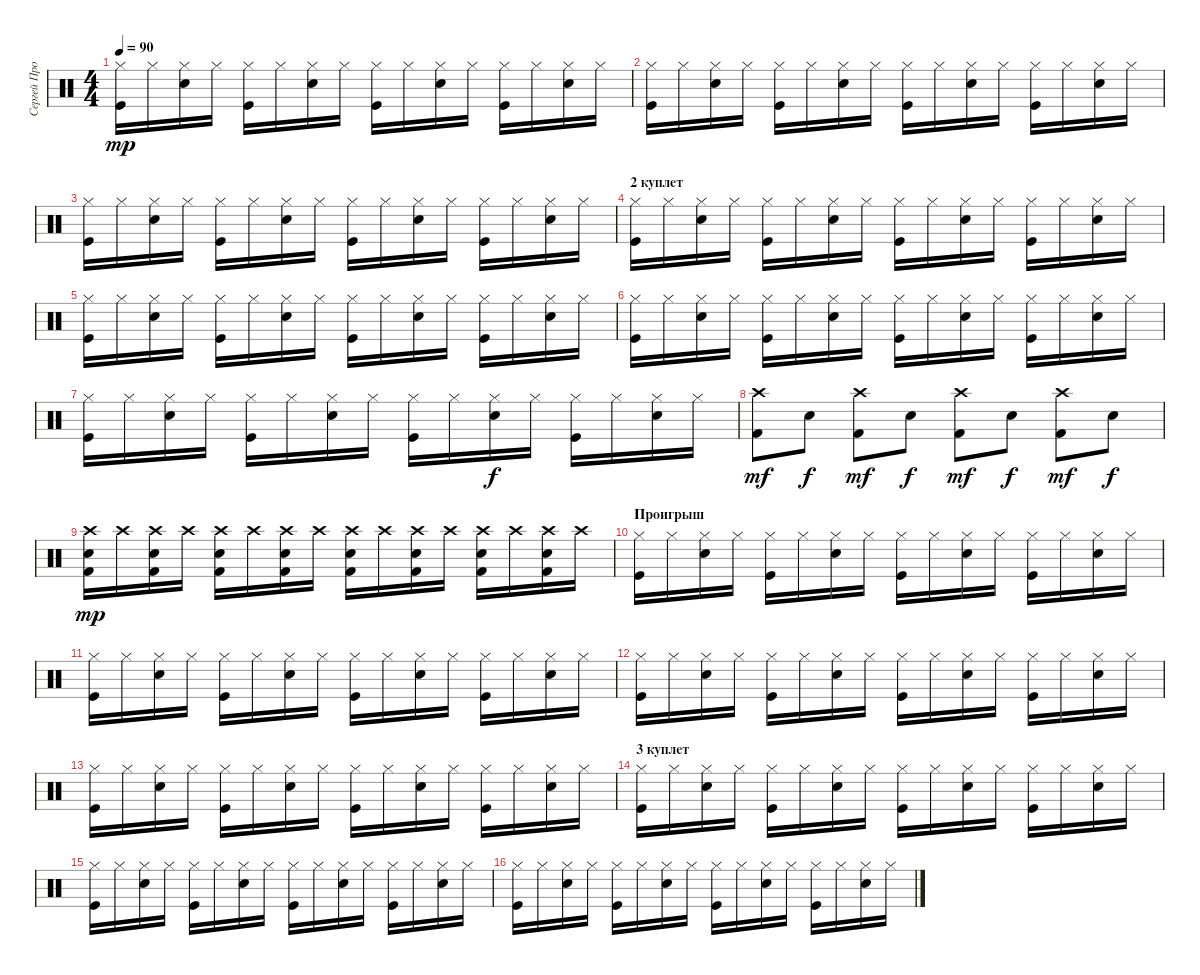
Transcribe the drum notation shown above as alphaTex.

\track ("Сергей Прокофьев" "Сергей Про") {instrument percussion}
\staff {score}
\articulation defaults
\ts (4 4)
\tempo 90
\clef neutral
\ks c
("Hi-Hat (closed)" "Kick (hit)").16{dy mp} "Hi-Hat (closed)".16 ("Hi-Hat (closed)" "Electric Snare (hit)").16 "Hi-Hat (closed)".16 ("Hi-Hat (closed)" "Kick (hit)").16 "Hi-Hat (closed)".16 ("Hi-Hat (closed)" "Electric Snare (hit)").16 "Hi-Hat (closed)".16 ("Hi-Hat (closed)" "Kick (hit)").16 "Hi-Hat (closed)".16 ("Hi-Hat (closed)" "Electric Snare (hit)").16 "Hi-Hat (closed)".16 ("Hi-Hat (closed)" "Kick (hit)").16 "Hi-Hat (closed)".16 ("Hi-Hat (closed)" "Electric Snare (hit)").16 "Hi-Hat (closed)".16 |
("Hi-Hat (closed)" "Kick (hit)").16 "Hi-Hat (closed)".16 ("Hi-Hat (closed)" "Electric Snare (hit)").16 "Hi-Hat (closed)".16 ("Hi-Hat (closed)" "Kick (hit)").16 "Hi-Hat (closed)".16 ("Hi-Hat (closed)" "Electric Snare (hit)").16 "Hi-Hat (closed)".16 ("Hi-Hat (closed)" "Kick (hit)").16 "Hi-Hat (closed)".16 ("Hi-Hat (closed)" "Electric Snare (hit)").16 "Hi-Hat (closed)".16 ("Hi-Hat (closed)" "Kick (hit)").16 "Hi-Hat (closed)".16 ("Hi-Hat (closed)" "Electric Snare (hit)").16 "Hi-Hat (closed)".16 |
("Hi-Hat (closed)" "Kick (hit)").16 "Hi-Hat (closed)".16 ("Hi-Hat (closed)" "Electric Snare (hit)").16 "Hi-Hat (closed)".16 ("Hi-Hat (closed)" "Kick (hit)").16 "Hi-Hat (closed)".16 ("Hi-Hat (closed)" "Electric Snare (hit)").16 "Hi-Hat (closed)".16 ("Hi-Hat (closed)" "Kick (hit)").16 "Hi-Hat (closed)".16 ("Hi-Hat (closed)" "Electric Snare (hit)").16 "Hi-Hat (closed)".16 ("Hi-Hat (closed)" "Kick (hit)").16 "Hi-Hat (closed)".16 ("Hi-Hat (closed)" "Electric Snare (hit)").16 "Hi-Hat (closed)".16 |
\section ("" "2 куплет")
("Hi-Hat (closed)" "Kick (hit)").16 "Hi-Hat (closed)".16 ("Hi-Hat (closed)" "Electric Snare (hit)").16 "Hi-Hat (closed)".16 ("Hi-Hat (closed)" "Kick (hit)").16 "Hi-Hat (closed)".16 ("Hi-Hat (closed)" "Electric Snare (hit)").16 "Hi-Hat (closed)".16 ("Hi-Hat (closed)" "Kick (hit)").16 "Hi-Hat (closed)".16 ("Hi-Hat (closed)" "Electric Snare (hit)").16 "Hi-Hat (closed)".16 ("Hi-Hat (closed)" "Kick (hit)").16 "Hi-Hat (closed)".16 ("Hi-Hat (closed)" "Electric Snare (hit)").16 "Hi-Hat (closed)".16 |
("Hi-Hat (closed)" "Kick (hit)").16 "Hi-Hat (closed)".16 ("Hi-Hat (closed)" "Electric Snare (hit)").16 "Hi-Hat (closed)".16 ("Hi-Hat (closed)" "Kick (hit)").16 "Hi-Hat (closed)".16 ("Hi-Hat (closed)" "Electric Snare (hit)").16 "Hi-Hat (closed)".16 ("Hi-Hat (closed)" "Kick (hit)").16 "Hi-Hat (closed)".16 ("Hi-Hat (closed)" "Electric Snare (hit)").16 "Hi-Hat (closed)".16 ("Hi-Hat (closed)" "Kick (hit)").16 "Hi-Hat (closed)".16 ("Hi-Hat (closed)" "Electric Snare (hit)").16 "Hi-Hat (closed)".16 |
("Hi-Hat (closed)" "Kick (hit)").16 "Hi-Hat (closed)".16 ("Hi-Hat (closed)" "Electric Snare (hit)").16 "Hi-Hat (closed)".16 ("Hi-Hat (closed)" "Kick (hit)").16 "Hi-Hat (closed)".16 ("Hi-Hat (closed)" "Electric Snare (hit)").16 "Hi-Hat (closed)".16 ("Hi-Hat (closed)" "Kick (hit)").16 "Hi-Hat (closed)".16 ("Hi-Hat (closed)" "Electric Snare (hit)").16 "Hi-Hat (closed)".16 ("Hi-Hat (closed)" "Kick (hit)").16 "Hi-Hat (closed)".16 ("Hi-Hat (closed)" "Electric Snare (hit)").16 "Hi-Hat (closed)".16 |
("Hi-Hat (closed)" "Kick (hit)").16 "Hi-Hat (closed)".16 ("Hi-Hat (closed)" "Electric Snare (hit)").16 "Hi-Hat (closed)".16 ("Hi-Hat (closed)" "Kick (hit)").16 "Hi-Hat (closed)".16 ("Hi-Hat (closed)" "Electric Snare (hit)").16 "Hi-Hat (closed)".16 ("Hi-Hat (closed)" "Kick (hit)").16 "Hi-Hat (closed)".16 ("Hi-Hat (closed)" "Electric Snare (hit)").16{dy f} "Hi-Hat (closed)".16 ("Hi-Hat (closed)" "Kick (hit)").16 "Hi-Hat (closed)".16 ("Hi-Hat (closed)" "Electric Snare (hit)").16 "Hi-Hat (closed)".16 |
("Crash high (hit)" "Kick (hit) 2").8{dy mf} "Electric Snare (hit)".8{dy f} ("Crash high (hit)" "Kick (hit) 2").8{dy mf} "Electric Snare (hit)".8{dy f} ("Crash high (hit)" "Kick (hit) 2").8{dy mf} "Electric Snare (hit)".8{dy f} ("Crash high (hit)" "Kick (hit) 2").8{dy mf} "Electric Snare (hit)".8{dy f} |
("Crash high (hit)" "Electric Snare (hit)" "Kick (hit) 2").16{dy mp} "Crash high (hit)".16 ("Crash high (hit)" "Electric Snare (hit)" "Kick (hit) 2").16 "Crash high (hit)".16 ("Crash high (hit)" "Electric Snare (hit)" "Kick (hit) 2").16 "Crash high (hit)".16 ("Crash high (hit)" "Electric Snare (hit)" "Kick (hit) 2").16 "Crash high (hit)".16 ("Crash high (hit)" "Electric Snare (hit)" "Kick (hit) 2").16 "Crash high (hit)".16 ("Crash high (hit)" "Electric Snare (hit)" "Kick (hit) 2").16 "Crash high (hit)".16 ("Crash high (hit)" "Electric Snare (hit)" "Kick (hit) 2").16 "Crash high (hit)".16 ("Crash high (hit)" "Electric Snare (hit)" "Kick (hit) 2").16 "Crash high (hit)".16 |
\section ("" "Проигрыш")
("Hi-Hat (closed)" "Kick (hit)").16 "Hi-Hat (closed)".16 ("Hi-Hat (closed)" "Electric Snare (hit)").16 "Hi-Hat (closed)".16 ("Hi-Hat (closed)" "Kick (hit)").16 "Hi-Hat (closed)".16 ("Hi-Hat (closed)" "Electric Snare (hit)").16 "Hi-Hat (closed)".16 ("Hi-Hat (closed)" "Kick (hit)").16 "Hi-Hat (closed)".16 ("Hi-Hat (closed)" "Electric Snare (hit)").16 "Hi-Hat (closed)".16 ("Hi-Hat (closed)" "Kick (hit)").16 "Hi-Hat (closed)".16 ("Hi-Hat (closed)" "Electric Snare (hit)").16 "Hi-Hat (closed)".16 |
("Hi-Hat (closed)" "Kick (hit)").16 "Hi-Hat (closed)".16 ("Hi-Hat (closed)" "Electric Snare (hit)").16 "Hi-Hat (closed)".16 ("Hi-Hat (closed)" "Kick (hit)").16 "Hi-Hat (closed)".16 ("Hi-Hat (closed)" "Electric Snare (hit)").16 "Hi-Hat (closed)".16 ("Hi-Hat (closed)" "Kick (hit)").16 "Hi-Hat (closed)".16 ("Hi-Hat (closed)" "Electric Snare (hit)").16 "Hi-Hat (closed)".16 ("Hi-Hat (closed)" "Kick (hit)").16 "Hi-Hat (closed)".16 ("Hi-Hat (closed)" "Electric Snare (hit)").16 "Hi-Hat (closed)".16 |
("Hi-Hat (closed)" "Kick (hit)").16 "Hi-Hat (closed)".16 ("Hi-Hat (closed)" "Electric Snare (hit)").16 "Hi-Hat (closed)".16 ("Hi-Hat (closed)" "Kick (hit)").16 "Hi-Hat (closed)".16 ("Hi-Hat (closed)" "Electric Snare (hit)").16 "Hi-Hat (closed)".16 ("Hi-Hat (closed)" "Kick (hit)").16 "Hi-Hat (closed)".16 ("Hi-Hat (closed)" "Electric Snare (hit)").16 "Hi-Hat (closed)".16 ("Hi-Hat (closed)" "Kick (hit)").16 "Hi-Hat (closed)".16 ("Hi-Hat (closed)" "Electric Snare (hit)").16 "Hi-Hat (closed)".16 |
("Hi-Hat (closed)" "Kick (hit)").16 "Hi-Hat (closed)".16 ("Hi-Hat (closed)" "Electric Snare (hit)").16 "Hi-Hat (closed)".16 ("Hi-Hat (closed)" "Kick (hit)").16 "Hi-Hat (closed)".16 ("Hi-Hat (closed)" "Electric Snare (hit)").16 "Hi-Hat (closed)".16 ("Hi-Hat (closed)" "Kick (hit)").16 "Hi-Hat (closed)".16 ("Hi-Hat (closed)" "Electric Snare (hit)").16 "Hi-Hat (closed)".16 ("Hi-Hat (closed)" "Kick (hit)").16 "Hi-Hat (closed)".16 ("Hi-Hat (closed)" "Electric Snare (hit)").16 "Hi-Hat (closed)".16 |
\section ("" "3 куплет")
("Hi-Hat (closed)" "Kick (hit)").16 "Hi-Hat (closed)".16 ("Hi-Hat (closed)" "Electric Snare (hit)").16 "Hi-Hat (closed)".16 ("Hi-Hat (closed)" "Kick (hit)").16 "Hi-Hat (closed)".16 ("Hi-Hat (closed)" "Electric Snare (hit)").16 "Hi-Hat (closed)".16 ("Hi-Hat (closed)" "Kick (hit)").16 "Hi-Hat (closed)".16 ("Hi-Hat (closed)" "Electric Snare (hit)").16 "Hi-Hat (closed)".16 ("Hi-Hat (closed)" "Kick (hit)").16 "Hi-Hat (closed)".16 ("Hi-Hat (closed)" "Electric Snare (hit)").16 "Hi-Hat (closed)".16 |
("Hi-Hat (closed)" "Kick (hit)").16 "Hi-Hat (closed)".16 ("Hi-Hat (closed)" "Electric Snare (hit)").16 "Hi-Hat (closed)".16 ("Hi-Hat (closed)" "Kick (hit)").16 "Hi-Hat (closed)".16 ("Hi-Hat (closed)" "Electric Snare (hit)").16 "Hi-Hat (closed)".16 ("Hi-Hat (closed)" "Kick (hit)").16 "Hi-Hat (closed)".16 ("Hi-Hat (closed)" "Electric Snare (hit)").16 "Hi-Hat (closed)".16 ("Hi-Hat (closed)" "Kick (hit)").16 "Hi-Hat (closed)".16 ("Hi-Hat (closed)" "Electric Snare (hit)").16 "Hi-Hat (closed)".16 |
("Hi-Hat (closed)" "Kick (hit)").16 "Hi-Hat (closed)".16 ("Hi-Hat (closed)" "Electric Snare (hit)").16 "Hi-Hat (closed)".16 ("Hi-Hat (closed)" "Kick (hit)").16 "Hi-Hat (closed)".16 ("Hi-Hat (closed)" "Electric Snare (hit)").16 "Hi-Hat (closed)".16 ("Hi-Hat (closed)" "Kick (hit)").16 "Hi-Hat (closed)".16 ("Hi-Hat (closed)" "Electric Snare (hit)").16 "Hi-Hat (closed)".16 ("Hi-Hat (closed)" "Kick (hit)").16 "Hi-Hat (closed)".16 ("Hi-Hat (closed)" "Electric Snare (hit)").16 "Hi-Hat (closed)".16
